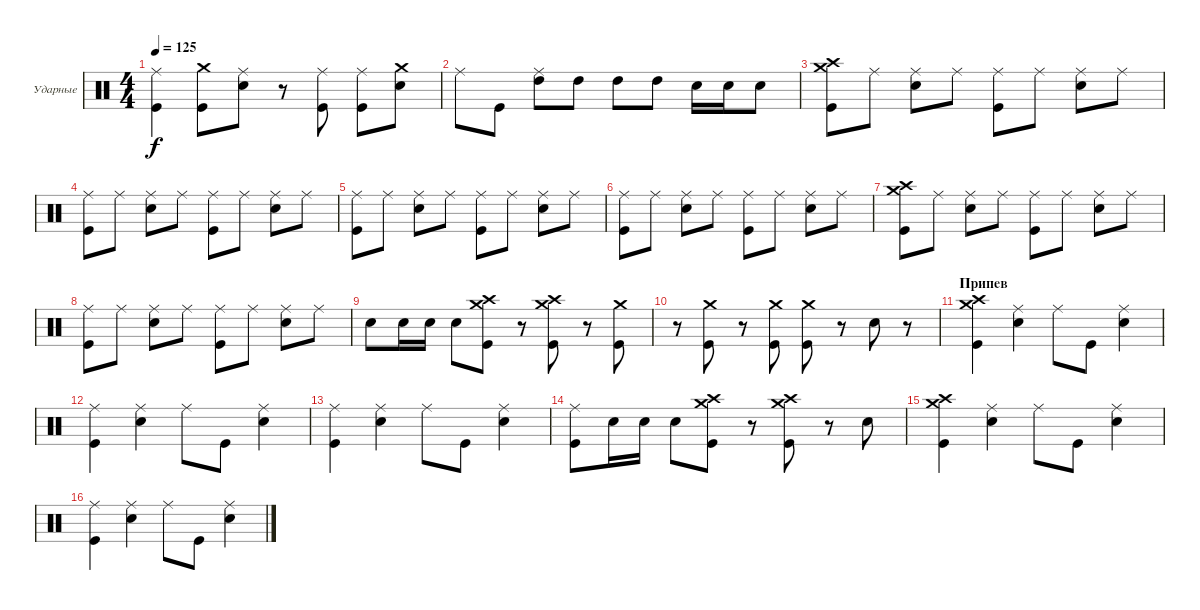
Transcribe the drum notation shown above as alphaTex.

\bracketExtendMode groupsimilarinstruments
\firstSystemTrackNameOrientation horizontal
\otherSystemsTrackNameOrientation horizontal
\track ("Максим Удалов" "Ударные") {instrument percussion}
\staff {score}
\articulation defaults
\ts (4 4)
\tempo 125
\clef neutral
\ks c
("Kick (hit)" "Ride (middle)").4{dy f} ("Kick (hit)" "Crash medium (hit)").8 ("Snare (hit) 2" "Ride (middle)").8 r.8 ("Kick (hit)" "Ride (middle)").8 ("Kick (hit)" "Ride (middle)").8 ("Snare (hit) 2" "Crash medium (hit)").8 |
"Ride (middle)".8 "Kick (hit)".8 ("High Tom (hit)" "Ride (middle)").8 "High Tom (hit)".8 "High Tom (hit)".8 "High Tom (hit)".8 "Snare (hit) 2".16 "Snare (hit) 2".16 "Snare (hit) 2".8 |
("Kick (hit)" "Crash high (hit)" "Crash medium (hit)").8 "Ride (middle)".8 ("Snare (hit) 2" "Ride (middle)").8 "Ride (middle)".8 ("Kick (hit)" "Ride (middle)").8 "Ride (middle)".8 ("Snare (hit) 2" "Ride (middle)").8 "Ride (middle)".8 |
("Kick (hit)" "Ride (middle)").8 "Ride (middle)".8 ("Snare (hit) 2" "Ride (middle)").8 "Ride (middle)".8 ("Kick (hit)" "Ride (middle)").8 "Ride (middle)".8 ("Snare (hit) 2" "Ride (middle)").8 "Ride (middle)".8 |
("Kick (hit)" "Ride (middle)").8 "Ride (middle)".8 ("Snare (hit) 2" "Ride (middle)").8 "Ride (middle)".8 ("Kick (hit)" "Ride (middle)").8 "Ride (middle)".8 ("Snare (hit) 2" "Ride (middle)").8 "Ride (middle)".8 |
("Kick (hit)" "Ride (middle)").8 "Ride (middle)".8 ("Snare (hit) 2" "Ride (middle)").8 "Ride (middle)".8 ("Kick (hit)" "Ride (middle)").8 "Ride (middle)".8 ("Snare (hit) 2" "Ride (middle)").8 "Ride (middle)".8 |
("Kick (hit)" "Crash high (hit)" "Crash medium (hit)").8 "Ride (middle)".8 ("Snare (hit) 2" "Ride (middle)").8 "Ride (middle)".8 ("Kick (hit)" "Ride (middle)").8 "Ride (middle)".8 ("Snare (hit) 2" "Ride (middle)").8 "Ride (middle)".8 |
("Kick (hit)" "Ride (middle)").8 "Ride (middle)".8 ("Snare (hit) 2" "Ride (middle)").8 "Ride (middle)".8 ("Kick (hit)" "Ride (middle)").8 "Ride (middle)".8 ("Snare (hit) 2" "Ride (middle)").8 "Ride (middle)".8 |
"Snare (hit) 2".8 "Snare (hit) 2".16 "Snare (hit) 2".16 "Snare (hit) 2".8 ("Kick (hit)" "Crash high (hit)" "Crash medium (hit)").8 r.8 ("Kick (hit)" "Crash medium (hit)" "Crash high (hit)").8 r.8 ("Kick (hit)" "Crash medium (hit)").8 |
r.8 ("Kick (hit)" "Crash medium (hit)").8 r.8 ("Kick (hit)" "Crash medium (hit)").8 ("Kick (hit)" "Crash medium (hit)").8 r.8 "Snare (hit) 2".8 r.8 |
\section ("" "Припев")
("Kick (hit)" "Crash medium (hit)" "Crash high (hit)").4 ("Snare (hit) 2" "Ride (middle)").4 "Ride (middle)".8 "Kick (hit)".8 ("Snare (hit) 2" "Ride (middle)").4 |
("Kick (hit)" "Ride (middle)").4 ("Snare (hit) 2" "Ride (middle)").4 "Ride (middle)".8 "Kick (hit)".8 ("Snare (hit) 2" "Ride (middle)").4 |
("Kick (hit)" "Ride (middle)").4 ("Snare (hit) 2" "Ride (middle)").4 "Ride (middle)".8 "Kick (hit)".8 ("Snare (hit) 2" "Ride (middle)").4 |
("Kick (hit)" "Ride (middle)").8 "Snare (hit) 2".16 "Snare (hit) 2".16 "Snare (hit) 2".8 ("Kick (hit)" "Crash medium (hit)" "Crash high (hit)").8 r.8 ("Kick (hit)" "Crash medium (hit)" "Crash high (hit)").8 r.8 "Snare (hit) 2".8 |
("Kick (hit)" "Crash medium (hit)" "Crash high (hit)").4 ("Snare (hit) 2" "Ride (middle)").4 "Ride (middle)".8 "Kick (hit)".8 ("Snare (hit) 2" "Ride (middle)").4 |
("Kick (hit)" "Ride (middle)").4 ("Snare (hit) 2" "Ride (middle)").4 "Ride (middle)".8 "Kick (hit)".8 ("Snare (hit) 2" "Ride (middle)").4
